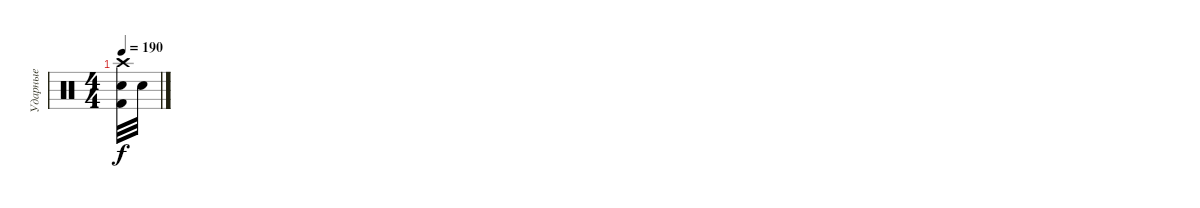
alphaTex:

\track ("Ударные" "Ударные") {instrument percussion}
\staff {score}
\articulation defaults
\ts (4 4)
\tempo 190
\clef neutral
\ks c
("Crash high (hit)" "Kick (hit) 2" "Electric Snare (hit)").32{dy f} "Electric Snare (hit)".32
